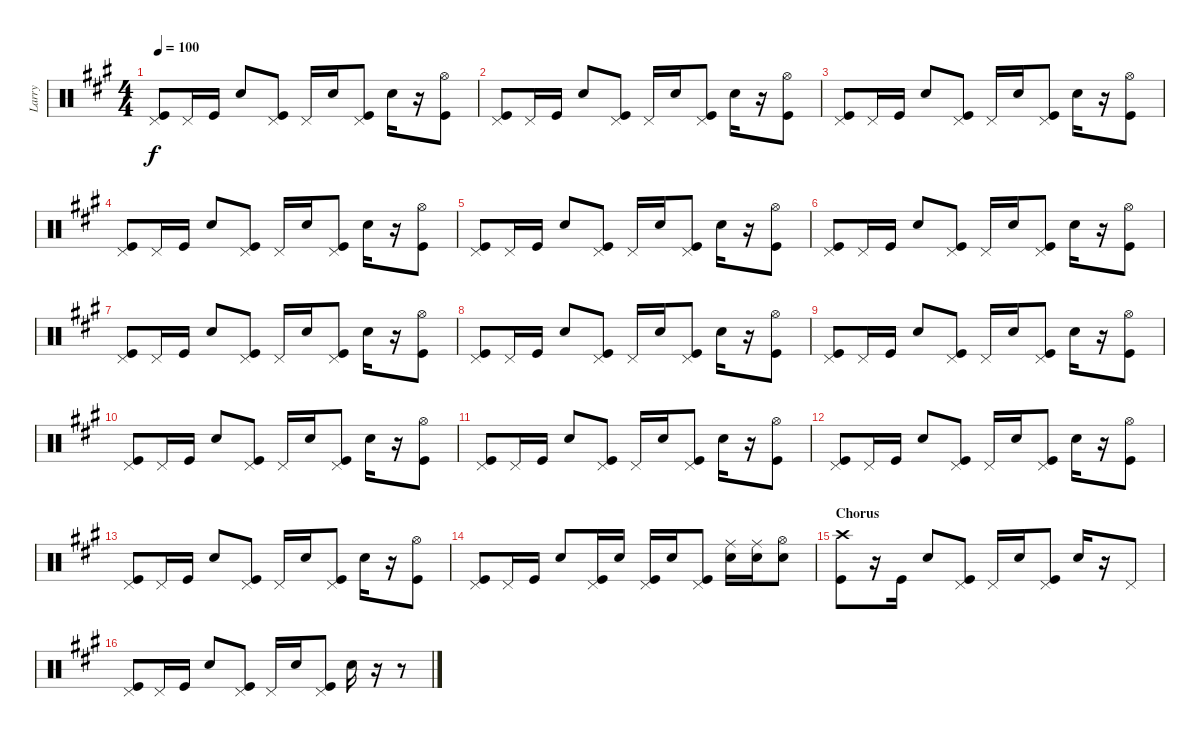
\track ("Larry" "Larry") {instrument percussion}
\staff {score}
\articulation defaults
\ts (4 4)
\tempo 100
\clef neutral
\ks f#minor
("Pedal Hi-Hat (hit)" "Kick (hit)").8{dy f} "Pedal Hi-Hat (hit)".16 "Kick (hit)".16 "Snare (hit) 2".8 ("Pedal Hi-Hat (hit)" "Kick (hit)").8 "Pedal Hi-Hat (hit)".16 "Snare (hit) 2".16 ("Pedal Hi-Hat (hit)" "Kick (hit)").8 "Snare (hit) 2".16 r.16 ("Hi-Hat (open)" "Kick (hit)").8 |
("Pedal Hi-Hat (hit)" "Kick (hit)").8 "Pedal Hi-Hat (hit)".16 "Kick (hit)".16 "Snare (hit) 2".8 ("Pedal Hi-Hat (hit)" "Kick (hit)").8 "Pedal Hi-Hat (hit)".16 "Snare (hit) 2".16 ("Pedal Hi-Hat (hit)" "Kick (hit)").8 "Snare (hit) 2".16 r.16 ("Hi-Hat (open)" "Kick (hit)").8 |
("Pedal Hi-Hat (hit)" "Kick (hit)").8 "Pedal Hi-Hat (hit)".16 "Kick (hit)".16 "Snare (hit) 2".8 ("Pedal Hi-Hat (hit)" "Kick (hit)").8 "Pedal Hi-Hat (hit)".16 "Snare (hit) 2".16 ("Pedal Hi-Hat (hit)" "Kick (hit)").8 "Snare (hit) 2".16 r.16 ("Hi-Hat (open)" "Kick (hit)").8 |
("Pedal Hi-Hat (hit)" "Kick (hit)").8 "Pedal Hi-Hat (hit)".16 "Kick (hit)".16 "Snare (hit) 2".8 ("Pedal Hi-Hat (hit)" "Kick (hit)").8 "Pedal Hi-Hat (hit)".16 "Snare (hit) 2".16 ("Pedal Hi-Hat (hit)" "Kick (hit)").8 "Snare (hit) 2".16 r.16 ("Hi-Hat (open)" "Kick (hit)").8 |
("Pedal Hi-Hat (hit)" "Kick (hit)").8 "Pedal Hi-Hat (hit)".16 "Kick (hit)".16 "Snare (hit) 2".8 ("Pedal Hi-Hat (hit)" "Kick (hit)").8 "Pedal Hi-Hat (hit)".16 "Snare (hit) 2".16 ("Pedal Hi-Hat (hit)" "Kick (hit)").8 "Snare (hit) 2".16 r.16 ("Hi-Hat (open)" "Kick (hit)").8 |
("Pedal Hi-Hat (hit)" "Kick (hit)").8 "Pedal Hi-Hat (hit)".16 "Kick (hit)".16 "Snare (hit) 2".8 ("Pedal Hi-Hat (hit)" "Kick (hit)").8 "Pedal Hi-Hat (hit)".16 "Snare (hit) 2".16 ("Pedal Hi-Hat (hit)" "Kick (hit)").8 "Snare (hit) 2".16 r.16 ("Hi-Hat (open)" "Kick (hit)").8 |
("Pedal Hi-Hat (hit)" "Kick (hit)").8 "Pedal Hi-Hat (hit)".16 "Kick (hit)".16 "Snare (hit) 2".8 ("Pedal Hi-Hat (hit)" "Kick (hit)").8 "Pedal Hi-Hat (hit)".16 "Snare (hit) 2".16 ("Pedal Hi-Hat (hit)" "Kick (hit)").8 "Snare (hit) 2".16 r.16 ("Hi-Hat (open)" "Kick (hit)").8 |
("Pedal Hi-Hat (hit)" "Kick (hit)").8 "Pedal Hi-Hat (hit)".16 "Kick (hit)".16 "Snare (hit) 2".8 ("Pedal Hi-Hat (hit)" "Kick (hit)").8 "Pedal Hi-Hat (hit)".16 "Snare (hit) 2".16 ("Pedal Hi-Hat (hit)" "Kick (hit)").8 "Snare (hit) 2".16 r.16 ("Hi-Hat (open)" "Kick (hit)").8 |
("Pedal Hi-Hat (hit)" "Kick (hit)").8 "Pedal Hi-Hat (hit)".16 "Kick (hit)".16 "Snare (hit) 2".8 ("Pedal Hi-Hat (hit)" "Kick (hit)").8 "Pedal Hi-Hat (hit)".16 "Snare (hit) 2".16 ("Pedal Hi-Hat (hit)" "Kick (hit)").8 "Snare (hit) 2".16 r.16 ("Hi-Hat (open)" "Kick (hit)").8 |
("Pedal Hi-Hat (hit)" "Kick (hit)").8 "Pedal Hi-Hat (hit)".16 "Kick (hit)".16 "Snare (hit) 2".8 ("Pedal Hi-Hat (hit)" "Kick (hit)").8 "Pedal Hi-Hat (hit)".16 "Snare (hit) 2".16 ("Pedal Hi-Hat (hit)" "Kick (hit)").8 "Snare (hit) 2".16 r.16 ("Hi-Hat (open)" "Kick (hit)").8 |
("Pedal Hi-Hat (hit)" "Kick (hit)").8 "Pedal Hi-Hat (hit)".16 "Kick (hit)".16 "Snare (hit) 2".8 ("Pedal Hi-Hat (hit)" "Kick (hit)").8 "Pedal Hi-Hat (hit)".16 "Snare (hit) 2".16 ("Pedal Hi-Hat (hit)" "Kick (hit)").8 "Snare (hit) 2".16 r.16 ("Hi-Hat (open)" "Kick (hit)").8 |
("Pedal Hi-Hat (hit)" "Kick (hit)").8 "Pedal Hi-Hat (hit)".16 "Kick (hit)".16 "Snare (hit) 2".8 ("Pedal Hi-Hat (hit)" "Kick (hit)").8 "Pedal Hi-Hat (hit)".16 "Snare (hit) 2".16 ("Pedal Hi-Hat (hit)" "Kick (hit)").8 "Snare (hit) 2".16 r.16 ("Hi-Hat (open)" "Kick (hit)").8 |
("Pedal Hi-Hat (hit)" "Kick (hit)").8 "Pedal Hi-Hat (hit)".16 "Kick (hit)".16 "Snare (hit) 2".8 ("Pedal Hi-Hat (hit)" "Kick (hit)").8 "Pedal Hi-Hat (hit)".16 "Snare (hit) 2".16 ("Pedal Hi-Hat (hit)" "Kick (hit)").8 "Snare (hit) 2".16 r.16 ("Hi-Hat (open)" "Kick (hit)").8 |
("Pedal Hi-Hat (hit)" "Kick (hit)").8 "Pedal Hi-Hat (hit)".16 "Kick (hit)".16 "Snare (hit) 2".8 ("Pedal Hi-Hat (hit)" "Kick (hit)").16 "Snare (hit) 2".16 ("Pedal Hi-Hat (hit)" "Kick (hit)").16 "Snare (hit) 2".16 ("Pedal Hi-Hat (hit)" "Kick (hit)").8 ("Ride (middle)" "Snare (hit) 2").16 ("Ride (middle)" "Snare (hit) 2").16 ("Hi-Hat (open)" "Snare (hit) 2").8 |
\section ("" "Chorus")
("Crash high (hit)" "Kick (hit)").8 r.16 "Kick (hit)".16 "Snare (hit) 2".8 ("Pedal Hi-Hat (hit)" "Kick (hit)").8 "Pedal Hi-Hat (hit)".16 "Snare (hit) 2".16 ("Pedal Hi-Hat (hit)" "Kick (hit)").8 "Snare (hit) 2".16 r.16 "Pedal Hi-Hat (hit)".8 |
("Pedal Hi-Hat (hit)" "Kick (hit)").8 "Pedal Hi-Hat (hit)".16 "Kick (hit)".16 "Snare (hit) 2".8 ("Pedal Hi-Hat (hit)" "Kick (hit)").8 "Pedal Hi-Hat (hit)".16 "Snare (hit) 2".16 ("Pedal Hi-Hat (hit)" "Kick (hit)").8 "Snare (hit) 2".16 r.16 r.8
